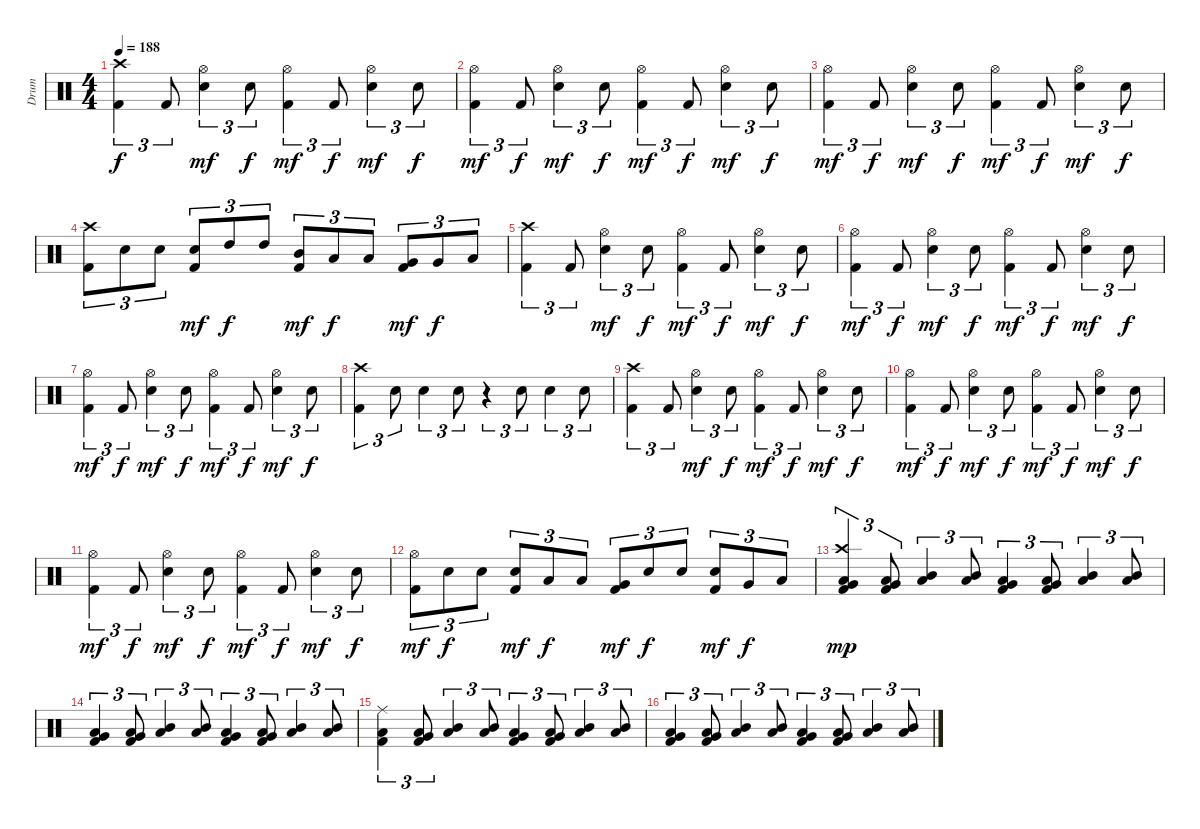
\track ("Drum" "Drum") {instrument percussion}
\staff {score}
\articulation defaults
\ts (4 4)
\tempo 188
\clef neutral
\ks c
("Kick (hit) 2" "Crash high (hit)").4{tu (3 2) dy f} "Kick (hit) 2".8{tu (3 2)} ("Snare (hit) 2" "Hi-Hat (open)").4{tu (3 2) dy mf} "Snare (hit) 2".8{tu (3 2) dy f} ("Kick (hit) 2" "Hi-Hat (open)").4{tu (3 2) dy mf} "Kick (hit) 2".8{tu (3 2) dy f} ("Snare (hit) 2" "Hi-Hat (open)").4{tu (3 2) dy mf} "Snare (hit) 2".8{tu (3 2) dy f} |
("Kick (hit) 2" "Hi-Hat (open)").4{tu (3 2) dy mf} "Kick (hit) 2".8{tu (3 2) dy f} ("Snare (hit) 2" "Hi-Hat (open)").4{tu (3 2) dy mf} "Snare (hit) 2".8{tu (3 2) dy f} ("Kick (hit) 2" "Hi-Hat (open)").4{tu (3 2) dy mf} "Kick (hit) 2".8{tu (3 2) dy f} ("Snare (hit) 2" "Hi-Hat (open)").4{tu (3 2) dy mf} "Snare (hit) 2".8{tu (3 2) dy f} |
("Kick (hit) 2" "Hi-Hat (open)").4{tu (3 2) dy mf} "Kick (hit) 2".8{tu (3 2) dy f} ("Snare (hit) 2" "Hi-Hat (open)").4{tu (3 2) dy mf} "Snare (hit) 2".8{tu (3 2) dy f} ("Kick (hit) 2" "Hi-Hat (open)").4{tu (3 2) dy mf} "Kick (hit) 2".8{tu (3 2) dy f} ("Snare (hit) 2" "Hi-Hat (open)").4{tu (3 2) dy mf} "Snare (hit) 2".8{tu (3 2) dy f} |
("Kick (hit) 2" "Crash high (hit)").8{tu (3 2)} "Snare (hit) 2".8{tu (3 2)} "Snare (hit) 2".8{tu (3 2)} ("Snare (hit) 2" "Kick (hit) 2").8{tu (3 2) dy mf} "High Tom (hit)".8{tu (3 2) dy f} "High Tom (hit)".8{tu (3 2)} ("Mid Tom (hit)" "Kick (hit) 2").8{tu (3 2) dy mf} "Low Tom (hit)".8{tu (3 2) dy f} "Low Tom (hit)".8{tu (3 2)} ("Very Low Tom (hit)" "Kick (hit) 2").8{tu (3 2) dy mf} "Very Low Tom (hit)".8{tu (3 2) dy f} "Low Floor Tom (hit)".8{tu (3 2)} |
("Kick (hit) 2" "Crash high (hit)").4{tu (3 2)} "Kick (hit) 2".8{tu (3 2)} ("Snare (hit) 2" "Hi-Hat (open)").4{tu (3 2) dy mf} "Snare (hit) 2".8{tu (3 2) dy f} ("Kick (hit) 2" "Hi-Hat (open)").4{tu (3 2) dy mf} "Kick (hit) 2".8{tu (3 2) dy f} ("Snare (hit) 2" "Hi-Hat (open)").4{tu (3 2) dy mf} "Snare (hit) 2".8{tu (3 2) dy f} |
("Kick (hit) 2" "Hi-Hat (open)").4{tu (3 2) dy mf} "Kick (hit) 2".8{tu (3 2) dy f} ("Snare (hit) 2" "Hi-Hat (open)").4{tu (3 2) dy mf} "Snare (hit) 2".8{tu (3 2) dy f} ("Kick (hit) 2" "Hi-Hat (open)").4{tu (3 2) dy mf} "Kick (hit) 2".8{tu (3 2) dy f} ("Snare (hit) 2" "Hi-Hat (open)").4{tu (3 2) dy mf} "Snare (hit) 2".8{tu (3 2) dy f} |
("Kick (hit) 2" "Hi-Hat (open)").4{tu (3 2) dy mf} "Kick (hit) 2".8{tu (3 2) dy f} ("Snare (hit) 2" "Hi-Hat (open)").4{tu (3 2) dy mf} "Snare (hit) 2".8{tu (3 2) dy f} ("Kick (hit) 2" "Hi-Hat (open)").4{tu (3 2) dy mf} "Kick (hit) 2".8{tu (3 2) dy f} ("Snare (hit) 2" "Hi-Hat (open)").4{tu (3 2) dy mf} "Snare (hit) 2".8{tu (3 2) dy f} |
("Kick (hit) 2" "Crash high (hit)").4{tu (3 2)} "Snare (hit) 2".8{tu (3 2)} "Snare (hit) 2".4{tu (3 2)} "Snare (hit) 2".8{tu (3 2)} r.4{tu (3 2)} "Snare (hit) 2".8{tu (3 2)} "Snare (hit) 2".4{tu (3 2)} "Snare (hit) 2".8{tu (3 2)} |
("Kick (hit) 2" "Crash high (hit)").4{tu (3 2)} "Kick (hit) 2".8{tu (3 2)} ("Snare (hit) 2" "Hi-Hat (open)").4{tu (3 2) dy mf} "Snare (hit) 2".8{tu (3 2) dy f} ("Kick (hit) 2" "Hi-Hat (open)").4{tu (3 2) dy mf} "Kick (hit) 2".8{tu (3 2) dy f} ("Snare (hit) 2" "Hi-Hat (open)").4{tu (3 2) dy mf} "Snare (hit) 2".8{tu (3 2) dy f} |
("Kick (hit) 2" "Hi-Hat (open)").4{tu (3 2) dy mf} "Kick (hit) 2".8{tu (3 2) dy f} ("Snare (hit) 2" "Hi-Hat (open)").4{tu (3 2) dy mf} "Snare (hit) 2".8{tu (3 2) dy f} ("Kick (hit) 2" "Hi-Hat (open)").4{tu (3 2) dy mf} "Kick (hit) 2".8{tu (3 2) dy f} ("Snare (hit) 2" "Hi-Hat (open)").4{tu (3 2) dy mf} "Snare (hit) 2".8{tu (3 2) dy f} |
("Kick (hit) 2" "Hi-Hat (open)").4{tu (3 2) dy mf} "Kick (hit) 2".8{tu (3 2) dy f} ("Snare (hit) 2" "Hi-Hat (open)").4{tu (3 2) dy mf} "Snare (hit) 2".8{tu (3 2) dy f} ("Kick (hit) 2" "Hi-Hat (open)").4{tu (3 2) dy mf} "Kick (hit) 2".8{tu (3 2) dy f} ("Snare (hit) 2" "Hi-Hat (open)").4{tu (3 2) dy mf} "Snare (hit) 2".8{tu (3 2) dy f} |
("Kick (hit) 2" "Hi-Hat (open)").8{tu (3 2) dy mf} "Snare (hit) 2".8{tu (3 2) dy f} "Snare (hit) 2".8{tu (3 2)} ("Snare (hit) 2" "Kick (hit) 2").8{tu (3 2) dy mf} "Low Tom (hit)".8{tu (3 2) dy f} "Low Tom (hit)".8{tu (3 2)} ("Very Low Tom (hit)" "Kick (hit) 2").8{tu (3 2) dy mf} "Snare (hit) 2".8{tu (3 2) dy f} "Snare (hit) 2".8{tu (3 2)} ("Snare (hit) 2" "Kick (hit) 2").8{tu (3 2) dy mf} "Very Low Tom (hit)".8{tu (3 2) dy f} "Low Floor Tom (hit)".8{tu (3 2)} |
("Kick (hit) 2" "Low Floor Tom (hit)" "Crash high (hit)" "Very Low Tom (hit)").4{tu (3 2) dy mp} ("Kick (hit) 2" "Low Floor Tom (hit)" "Very Low Tom (hit)").8{tu (3 2)} ("Mid Tom (hit)" "Low Tom (hit)").4{tu (3 2)} ("Mid Tom (hit)" "Low Tom (hit)").8{tu (3 2)} ("Kick (hit) 2" "Low Floor Tom (hit)" "Very Low Tom (hit)").4{tu (3 2)} ("Kick (hit) 2" "Low Floor Tom (hit)" "Very Low Tom (hit)").8{tu (3 2)} ("Mid Tom (hit)" "Low Tom (hit)").4{tu (3 2)} ("Mid Tom (hit)" "Low Tom (hit)").8{tu (3 2)} |
("Kick (hit) 2" "Low Floor Tom (hit)" "Very Low Tom (hit)").4{tu (3 2)} ("Kick (hit) 2" "Low Floor Tom (hit)" "Very Low Tom (hit)").8{tu (3 2)} ("Mid Tom (hit)" "Low Tom (hit)").4{tu (3 2)} ("Mid Tom (hit)" "Low Tom (hit)").8{tu (3 2)} ("Kick (hit) 2" "Low Floor Tom (hit)" "Very Low Tom (hit)").4{tu (3 2)} ("Kick (hit) 2" "Low Floor Tom (hit)" "Very Low Tom (hit)").8{tu (3 2)} ("Mid Tom (hit)" "Low Tom (hit)").4{tu (3 2)} ("Mid Tom (hit)" "Low Tom (hit)").8{tu (3 2)} |
("Kick (hit) 2" "Low Floor Tom (hit)" "Ride (middle)").4{tu (3 2)} ("Kick (hit) 2" "Low Floor Tom (hit)" "Very Low Tom (hit)").8{tu (3 2)} ("Mid Tom (hit)" "Low Tom (hit)").4{tu (3 2)} ("Mid Tom (hit)" "Low Tom (hit)").8{tu (3 2)} ("Kick (hit) 2" "Low Floor Tom (hit)" "Very Low Tom (hit)").4{tu (3 2)} ("Kick (hit) 2" "Low Floor Tom (hit)" "Very Low Tom (hit)").8{tu (3 2)} ("Mid Tom (hit)" "Low Tom (hit)").4{tu (3 2)} ("Mid Tom (hit)" "Low Tom (hit)").8{tu (3 2)} |
("Kick (hit) 2" "Low Floor Tom (hit)" "Very Low Tom (hit)").4{tu (3 2)} ("Kick (hit) 2" "Low Floor Tom (hit)" "Very Low Tom (hit)").8{tu (3 2)} ("Mid Tom (hit)" "Low Tom (hit)").4{tu (3 2)} ("Mid Tom (hit)" "Low Tom (hit)").8{tu (3 2)} ("Kick (hit) 2" "Low Floor Tom (hit)" "Very Low Tom (hit)").4{tu (3 2)} ("Kick (hit) 2" "Low Floor Tom (hit)" "Very Low Tom (hit)").8{tu (3 2)} ("Mid Tom (hit)" "Low Tom (hit)").4{tu (3 2)} ("Mid Tom (hit)" "Low Tom (hit)").8{tu (3 2)}
